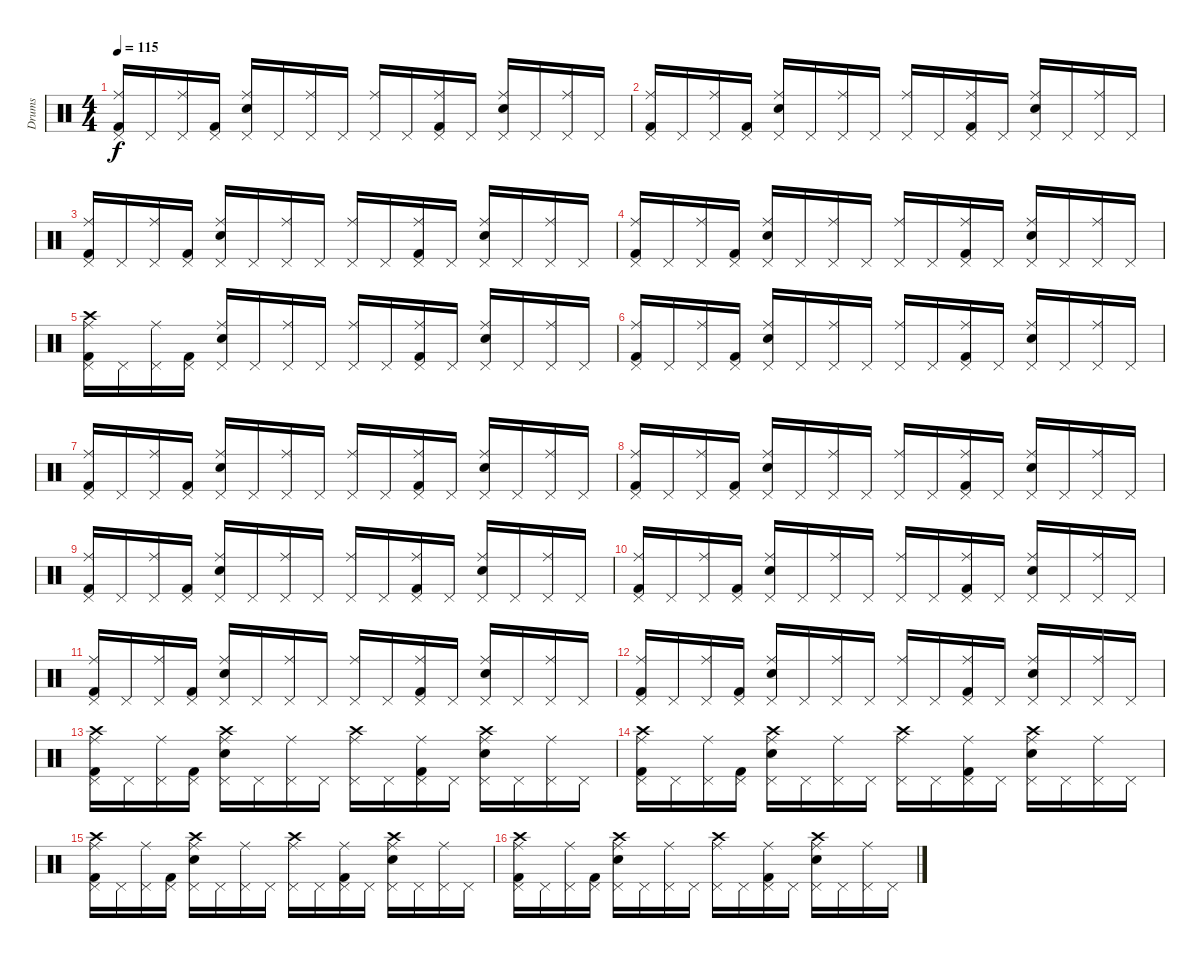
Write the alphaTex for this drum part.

\track ("Drums" "Drums") {instrument percussion}
\staff {score}
\articulation defaults
\ts (4 4)
\tempo 115
\clef neutral
\ks c
("Pedal Hi-Hat (hit)" "Kick (hit) 2" "Ride (middle)").16{dy f} "Pedal Hi-Hat (hit)".16 ("Pedal Hi-Hat (hit)" "Ride (middle)").16 ("Pedal Hi-Hat (hit)" "Kick (hit) 2").16 ("Pedal Hi-Hat (hit)" "Snare (hit) 2" "Ride (middle)").16 "Pedal Hi-Hat (hit)".16 ("Pedal Hi-Hat (hit)" "Ride (middle)").16 "Pedal Hi-Hat (hit)".16 ("Pedal Hi-Hat (hit)" "Ride (middle)").16 "Pedal Hi-Hat (hit)".16 ("Pedal Hi-Hat (hit)" "Kick (hit) 2" "Ride (middle)").16 "Pedal Hi-Hat (hit)".16 ("Pedal Hi-Hat (hit)" "Snare (hit) 2" "Ride (middle)").16 "Pedal Hi-Hat (hit)".16 ("Pedal Hi-Hat (hit)" "Ride (middle)").16 "Pedal Hi-Hat (hit)".16 |
("Pedal Hi-Hat (hit)" "Kick (hit) 2" "Ride (middle)").16 "Pedal Hi-Hat (hit)".16 ("Pedal Hi-Hat (hit)" "Ride (middle)").16 ("Pedal Hi-Hat (hit)" "Kick (hit) 2").16 ("Pedal Hi-Hat (hit)" "Snare (hit) 2" "Ride (middle)").16 "Pedal Hi-Hat (hit)".16 ("Pedal Hi-Hat (hit)" "Ride (middle)").16 "Pedal Hi-Hat (hit)".16 ("Pedal Hi-Hat (hit)" "Ride (middle)").16 "Pedal Hi-Hat (hit)".16 ("Pedal Hi-Hat (hit)" "Kick (hit) 2" "Ride (middle)").16 "Pedal Hi-Hat (hit)".16 ("Pedal Hi-Hat (hit)" "Snare (hit) 2" "Ride (middle)").16 "Pedal Hi-Hat (hit)".16 ("Pedal Hi-Hat (hit)" "Ride (middle)").16 "Pedal Hi-Hat (hit)".16 |
("Pedal Hi-Hat (hit)" "Kick (hit) 2" "Ride (middle)").16 "Pedal Hi-Hat (hit)".16 ("Pedal Hi-Hat (hit)" "Ride (middle)").16 ("Pedal Hi-Hat (hit)" "Kick (hit) 2").16 ("Pedal Hi-Hat (hit)" "Snare (hit) 2" "Ride (middle)").16 "Pedal Hi-Hat (hit)".16 ("Pedal Hi-Hat (hit)" "Ride (middle)").16 "Pedal Hi-Hat (hit)".16 ("Pedal Hi-Hat (hit)" "Ride (middle)").16 "Pedal Hi-Hat (hit)".16 ("Pedal Hi-Hat (hit)" "Kick (hit) 2" "Ride (middle)").16 "Pedal Hi-Hat (hit)".16 ("Pedal Hi-Hat (hit)" "Snare (hit) 2" "Ride (middle)").16 "Pedal Hi-Hat (hit)".16 ("Pedal Hi-Hat (hit)" "Ride (middle)").16 "Pedal Hi-Hat (hit)".16 |
("Pedal Hi-Hat (hit)" "Kick (hit) 2" "Ride (middle)").16 "Pedal Hi-Hat (hit)".16 ("Pedal Hi-Hat (hit)" "Ride (middle)").16 ("Pedal Hi-Hat (hit)" "Kick (hit) 2").16 ("Pedal Hi-Hat (hit)" "Snare (hit) 2" "Ride (middle)").16 "Pedal Hi-Hat (hit)".16 ("Pedal Hi-Hat (hit)" "Ride (middle)").16 "Pedal Hi-Hat (hit)".16 ("Pedal Hi-Hat (hit)" "Ride (middle)").16 "Pedal Hi-Hat (hit)".16 ("Pedal Hi-Hat (hit)" "Kick (hit) 2" "Ride (middle)").16 "Pedal Hi-Hat (hit)".16 ("Pedal Hi-Hat (hit)" "Snare (hit) 2" "Ride (middle)").16 "Pedal Hi-Hat (hit)".16 ("Pedal Hi-Hat (hit)" "Ride (middle)").16 "Pedal Hi-Hat (hit)".16 |
("Pedal Hi-Hat (hit)" "Kick (hit) 2" "Ride (middle)" "Crash high (hit)").16 "Pedal Hi-Hat (hit)".16 ("Pedal Hi-Hat (hit)" "Ride (middle)").16 ("Pedal Hi-Hat (hit)" "Kick (hit) 2").16 ("Pedal Hi-Hat (hit)" "Snare (hit) 2" "Ride (middle)").16 "Pedal Hi-Hat (hit)".16 ("Pedal Hi-Hat (hit)" "Ride (middle)").16 "Pedal Hi-Hat (hit)".16 ("Pedal Hi-Hat (hit)" "Ride (middle)").16 "Pedal Hi-Hat (hit)".16 ("Pedal Hi-Hat (hit)" "Kick (hit) 2" "Ride (middle)").16 "Pedal Hi-Hat (hit)".16 ("Pedal Hi-Hat (hit)" "Snare (hit) 2" "Ride (middle)").16 "Pedal Hi-Hat (hit)".16 ("Pedal Hi-Hat (hit)" "Ride (middle)").16 "Pedal Hi-Hat (hit)".16 |
("Pedal Hi-Hat (hit)" "Kick (hit) 2" "Ride (middle)").16 "Pedal Hi-Hat (hit)".16 ("Pedal Hi-Hat (hit)" "Ride (middle)").16 ("Pedal Hi-Hat (hit)" "Kick (hit) 2").16 ("Pedal Hi-Hat (hit)" "Snare (hit) 2" "Ride (middle)").16 "Pedal Hi-Hat (hit)".16 ("Pedal Hi-Hat (hit)" "Ride (middle)").16 "Pedal Hi-Hat (hit)".16 ("Pedal Hi-Hat (hit)" "Ride (middle)").16 "Pedal Hi-Hat (hit)".16 ("Pedal Hi-Hat (hit)" "Kick (hit) 2" "Ride (middle)").16 "Pedal Hi-Hat (hit)".16 ("Pedal Hi-Hat (hit)" "Snare (hit) 2" "Ride (middle)").16 "Pedal Hi-Hat (hit)".16 ("Pedal Hi-Hat (hit)" "Ride (middle)").16 "Pedal Hi-Hat (hit)".16 |
("Pedal Hi-Hat (hit)" "Kick (hit) 2" "Ride (middle)").16 "Pedal Hi-Hat (hit)".16 ("Pedal Hi-Hat (hit)" "Ride (middle)").16 ("Pedal Hi-Hat (hit)" "Kick (hit) 2").16 ("Pedal Hi-Hat (hit)" "Snare (hit) 2" "Ride (middle)").16 "Pedal Hi-Hat (hit)".16 ("Pedal Hi-Hat (hit)" "Ride (middle)").16 "Pedal Hi-Hat (hit)".16 ("Pedal Hi-Hat (hit)" "Ride (middle)").16 "Pedal Hi-Hat (hit)".16 ("Pedal Hi-Hat (hit)" "Kick (hit) 2" "Ride (middle)").16 "Pedal Hi-Hat (hit)".16 ("Pedal Hi-Hat (hit)" "Snare (hit) 2" "Ride (middle)").16 "Pedal Hi-Hat (hit)".16 ("Pedal Hi-Hat (hit)" "Ride (middle)").16 "Pedal Hi-Hat (hit)".16 |
("Pedal Hi-Hat (hit)" "Kick (hit) 2" "Ride (middle)").16 "Pedal Hi-Hat (hit)".16 ("Pedal Hi-Hat (hit)" "Ride (middle)").16 ("Pedal Hi-Hat (hit)" "Kick (hit) 2").16 ("Pedal Hi-Hat (hit)" "Snare (hit) 2" "Ride (middle)").16 "Pedal Hi-Hat (hit)".16 ("Pedal Hi-Hat (hit)" "Ride (middle)").16 "Pedal Hi-Hat (hit)".16 ("Pedal Hi-Hat (hit)" "Ride (middle)").16 "Pedal Hi-Hat (hit)".16 ("Pedal Hi-Hat (hit)" "Kick (hit) 2" "Ride (middle)").16 "Pedal Hi-Hat (hit)".16 ("Pedal Hi-Hat (hit)" "Snare (hit) 2" "Ride (middle)").16 "Pedal Hi-Hat (hit)".16 ("Pedal Hi-Hat (hit)" "Ride (middle)").16 "Pedal Hi-Hat (hit)".16 |
("Pedal Hi-Hat (hit)" "Kick (hit) 2" "Ride (middle)").16 "Pedal Hi-Hat (hit)".16 ("Pedal Hi-Hat (hit)" "Ride (middle)").16 ("Pedal Hi-Hat (hit)" "Kick (hit) 2").16 ("Pedal Hi-Hat (hit)" "Snare (hit) 2" "Ride (middle)").16 "Pedal Hi-Hat (hit)".16 ("Pedal Hi-Hat (hit)" "Ride (middle)").16 "Pedal Hi-Hat (hit)".16 ("Pedal Hi-Hat (hit)" "Ride (middle)").16 "Pedal Hi-Hat (hit)".16 ("Pedal Hi-Hat (hit)" "Kick (hit) 2" "Ride (middle)").16 "Pedal Hi-Hat (hit)".16 ("Pedal Hi-Hat (hit)" "Snare (hit) 2" "Ride (middle)").16 "Pedal Hi-Hat (hit)".16 ("Pedal Hi-Hat (hit)" "Ride (middle)").16 "Pedal Hi-Hat (hit)".16 |
("Pedal Hi-Hat (hit)" "Kick (hit) 2" "Ride (middle)").16 "Pedal Hi-Hat (hit)".16 ("Pedal Hi-Hat (hit)" "Ride (middle)").16 ("Pedal Hi-Hat (hit)" "Kick (hit) 2").16 ("Pedal Hi-Hat (hit)" "Snare (hit) 2" "Ride (middle)").16 "Pedal Hi-Hat (hit)".16 ("Pedal Hi-Hat (hit)" "Ride (middle)").16 "Pedal Hi-Hat (hit)".16 ("Pedal Hi-Hat (hit)" "Ride (middle)").16 "Pedal Hi-Hat (hit)".16 ("Pedal Hi-Hat (hit)" "Kick (hit) 2" "Ride (middle)").16 "Pedal Hi-Hat (hit)".16 ("Pedal Hi-Hat (hit)" "Snare (hit) 2" "Ride (middle)").16 "Pedal Hi-Hat (hit)".16 ("Pedal Hi-Hat (hit)" "Ride (middle)").16 "Pedal Hi-Hat (hit)".16 |
("Pedal Hi-Hat (hit)" "Kick (hit) 2" "Ride (middle)").16 "Pedal Hi-Hat (hit)".16 ("Pedal Hi-Hat (hit)" "Ride (middle)").16 ("Pedal Hi-Hat (hit)" "Kick (hit) 2").16 ("Pedal Hi-Hat (hit)" "Snare (hit) 2" "Ride (middle)").16 "Pedal Hi-Hat (hit)".16 ("Pedal Hi-Hat (hit)" "Ride (middle)").16 "Pedal Hi-Hat (hit)".16 ("Pedal Hi-Hat (hit)" "Ride (middle)").16 "Pedal Hi-Hat (hit)".16 ("Pedal Hi-Hat (hit)" "Kick (hit) 2" "Ride (middle)").16 "Pedal Hi-Hat (hit)".16 ("Pedal Hi-Hat (hit)" "Snare (hit) 2" "Ride (middle)").16 "Pedal Hi-Hat (hit)".16 ("Pedal Hi-Hat (hit)" "Ride (middle)").16 "Pedal Hi-Hat (hit)".16 |
("Pedal Hi-Hat (hit)" "Kick (hit) 2" "Ride (middle)").16 "Pedal Hi-Hat (hit)".16 ("Pedal Hi-Hat (hit)" "Ride (middle)").16 ("Pedal Hi-Hat (hit)" "Kick (hit) 2").16 ("Pedal Hi-Hat (hit)" "Snare (hit) 2" "Ride (middle)").16 "Pedal Hi-Hat (hit)".16 ("Pedal Hi-Hat (hit)" "Ride (middle)").16 "Pedal Hi-Hat (hit)".16 ("Pedal Hi-Hat (hit)" "Ride (middle)").16 "Pedal Hi-Hat (hit)".16 ("Pedal Hi-Hat (hit)" "Kick (hit) 2" "Ride (middle)").16 "Pedal Hi-Hat (hit)".16 ("Pedal Hi-Hat (hit)" "Snare (hit) 2" "Ride (middle)").16 "Pedal Hi-Hat (hit)".16 ("Pedal Hi-Hat (hit)" "Ride (middle)").16 "Pedal Hi-Hat (hit)".16 |
("Pedal Hi-Hat (hit)" "Kick (hit) 2" "Ride (middle)" "Crash high (hit)").16 "Pedal Hi-Hat (hit)".16 ("Pedal Hi-Hat (hit)" "Ride (middle)").16 ("Pedal Hi-Hat (hit)" "Kick (hit) 2").16 ("Pedal Hi-Hat (hit)" "Snare (hit) 2" "Ride (middle)" "Crash high (hit)").16 "Pedal Hi-Hat (hit)".16 ("Pedal Hi-Hat (hit)" "Ride (middle)").16 "Pedal Hi-Hat (hit)".16 ("Pedal Hi-Hat (hit)" "Ride (middle)" "Crash high (hit)").16 "Pedal Hi-Hat (hit)".16 ("Pedal Hi-Hat (hit)" "Kick (hit) 2" "Ride (middle)").16 "Pedal Hi-Hat (hit)".16 ("Pedal Hi-Hat (hit)" "Snare (hit) 2" "Ride (middle)" "Crash high (hit)").16 "Pedal Hi-Hat (hit)".16 ("Pedal Hi-Hat (hit)" "Ride (middle)").16 "Pedal Hi-Hat (hit)".16 |
("Pedal Hi-Hat (hit)" "Kick (hit) 2" "Ride (middle)" "Crash high (hit)").16 "Pedal Hi-Hat (hit)".16 ("Pedal Hi-Hat (hit)" "Ride (middle)").16 ("Pedal Hi-Hat (hit)" "Kick (hit) 2").16 ("Pedal Hi-Hat (hit)" "Snare (hit) 2" "Ride (middle)" "Crash high (hit)").16 "Pedal Hi-Hat (hit)".16 ("Pedal Hi-Hat (hit)" "Ride (middle)").16 "Pedal Hi-Hat (hit)".16 ("Pedal Hi-Hat (hit)" "Ride (middle)" "Crash high (hit)").16 "Pedal Hi-Hat (hit)".16 ("Pedal Hi-Hat (hit)" "Kick (hit) 2" "Ride (middle)").16 "Pedal Hi-Hat (hit)".16 ("Pedal Hi-Hat (hit)" "Snare (hit) 2" "Ride (middle)" "Crash high (hit)").16 "Pedal Hi-Hat (hit)".16 ("Pedal Hi-Hat (hit)" "Ride (middle)").16 "Pedal Hi-Hat (hit)".16 |
("Pedal Hi-Hat (hit)" "Kick (hit) 2" "Ride (middle)" "Crash high (hit)").16 "Pedal Hi-Hat (hit)".16 ("Pedal Hi-Hat (hit)" "Ride (middle)").16 ("Pedal Hi-Hat (hit)" "Kick (hit) 2").16 ("Pedal Hi-Hat (hit)" "Snare (hit) 2" "Ride (middle)" "Crash high (hit)").16 "Pedal Hi-Hat (hit)".16 ("Pedal Hi-Hat (hit)" "Ride (middle)").16 "Pedal Hi-Hat (hit)".16 ("Pedal Hi-Hat (hit)" "Ride (middle)" "Crash high (hit)").16 "Pedal Hi-Hat (hit)".16 ("Pedal Hi-Hat (hit)" "Kick (hit) 2" "Ride (middle)").16 "Pedal Hi-Hat (hit)".16 ("Pedal Hi-Hat (hit)" "Snare (hit) 2" "Ride (middle)" "Crash high (hit)").16 "Pedal Hi-Hat (hit)".16 ("Pedal Hi-Hat (hit)" "Ride (middle)").16 "Pedal Hi-Hat (hit)".16 |
("Pedal Hi-Hat (hit)" "Kick (hit) 2" "Ride (middle)" "Crash high (hit)").16 "Pedal Hi-Hat (hit)".16 ("Pedal Hi-Hat (hit)" "Ride (middle)").16 ("Pedal Hi-Hat (hit)" "Kick (hit) 2").16 ("Pedal Hi-Hat (hit)" "Snare (hit) 2" "Ride (middle)" "Crash high (hit)").16 "Pedal Hi-Hat (hit)".16 ("Pedal Hi-Hat (hit)" "Ride (middle)").16 "Pedal Hi-Hat (hit)".16 ("Pedal Hi-Hat (hit)" "Ride (middle)" "Crash high (hit)").16 "Pedal Hi-Hat (hit)".16 ("Pedal Hi-Hat (hit)" "Kick (hit) 2" "Ride (middle)").16 "Pedal Hi-Hat (hit)".16 ("Pedal Hi-Hat (hit)" "Snare (hit) 2" "Ride (middle)" "Crash high (hit)").16 "Pedal Hi-Hat (hit)".16 ("Pedal Hi-Hat (hit)" "Ride (middle)").16 "Pedal Hi-Hat (hit)".16
